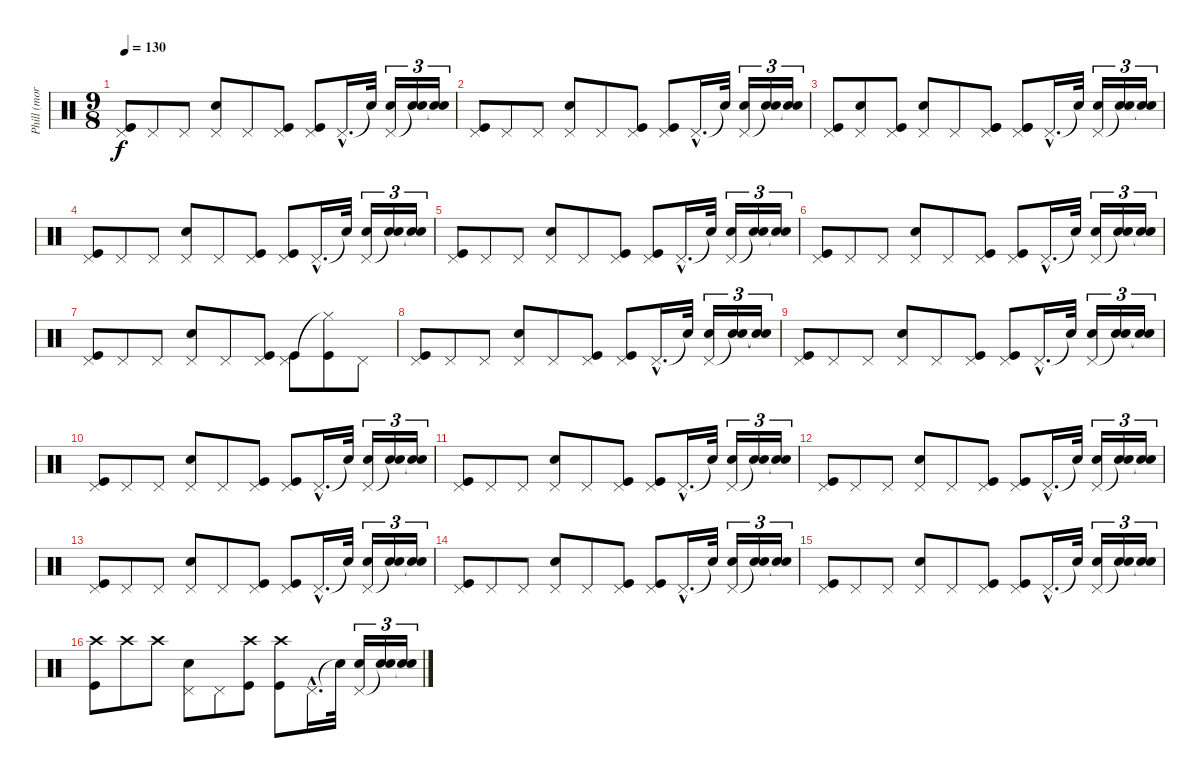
\track ("Phill (mornig bell)" "Phill (mor") {instrument percussion}
\staff {score}
\articulation defaults
\ts (9 8)
\tempo 130
\clef neutral
\ks c
("Pedal Hi-Hat (hit)" "Kick (hit)").8{dy f} "Pedal Hi-Hat (hit)".8 "Pedal Hi-Hat (hit)".8 ("Pedal Hi-Hat (hit)" "Snare (hit) 2").8 "Pedal Hi-Hat (hit)".8 ("Pedal Hi-Hat (hit)" "Kick (hit)").8 ("Pedal Hi-Hat (hit)" "Kick (hit)").8 "Pedal Hi-Hat (hit)"{hac}.16{d} "Snare (hit)"{t}.32 ("Pedal Hi-Hat (hit)" "Snare (hit) 2").16{tu (3 2)} ("Snare (hit)"{t} "Snare (hit) 2").16{tu (3 2)} ("Snare (hit)"{t} "Snare (hit) 2").16{tu (3 2)} |
("Pedal Hi-Hat (hit)" "Kick (hit)").8 "Pedal Hi-Hat (hit)".8 "Pedal Hi-Hat (hit)".8 ("Pedal Hi-Hat (hit)" "Snare (hit) 2").8 "Pedal Hi-Hat (hit)".8 ("Pedal Hi-Hat (hit)" "Kick (hit)").8 ("Pedal Hi-Hat (hit)" "Kick (hit)").8 "Pedal Hi-Hat (hit)"{hac}.16{d} "Snare (hit)"{t}.32 ("Pedal Hi-Hat (hit)" "Snare (hit) 2").16{tu (3 2)} ("Snare (hit)"{t} "Snare (hit) 2").16{tu (3 2)} ("Snare (hit)"{t} "Snare (hit) 2").16{tu (3 2)} |
("Pedal Hi-Hat (hit)" "Kick (hit)").8 ("Pedal Hi-Hat (hit)" "Snare (hit) 2").8 ("Pedal Hi-Hat (hit)" "Kick (hit)").8 ("Pedal Hi-Hat (hit)" "Snare (hit) 2").8 "Pedal Hi-Hat (hit)".8 ("Pedal Hi-Hat (hit)" "Kick (hit)" "Kick (hit)").8 ("Pedal Hi-Hat (hit)" "Kick (hit)" "Kick (hit)").8 "Pedal Hi-Hat (hit)"{hac}.16{d} "Snare (hit)"{t}.32 ("Pedal Hi-Hat (hit)" "Snare (hit) 2").16{tu (3 2)} ("Snare (hit)"{t} "Snare (hit) 2").16{tu (3 2)} ("Snare (hit)"{t} "Snare (hit) 2").16{tu (3 2)} |
("Pedal Hi-Hat (hit)" "Kick (hit)").8 "Pedal Hi-Hat (hit)".8 "Pedal Hi-Hat (hit)".8 ("Pedal Hi-Hat (hit)" "Snare (hit) 2").8 "Pedal Hi-Hat (hit)".8 ("Pedal Hi-Hat (hit)" "Kick (hit)").8 ("Pedal Hi-Hat (hit)" "Kick (hit)").8 "Pedal Hi-Hat (hit)"{hac}.16{d} "Snare (hit)"{t}.32 ("Pedal Hi-Hat (hit)" "Snare (hit) 2").16{tu (3 2)} ("Snare (hit)"{t} "Snare (hit) 2").16{tu (3 2)} ("Snare (hit)"{t} "Snare (hit) 2").16{tu (3 2)} |
("Pedal Hi-Hat (hit)" "Kick (hit)").8 "Pedal Hi-Hat (hit)".8 "Pedal Hi-Hat (hit)".8 ("Pedal Hi-Hat (hit)" "Snare (hit) 2").8 "Pedal Hi-Hat (hit)".8 ("Pedal Hi-Hat (hit)" "Kick (hit)").8 ("Pedal Hi-Hat (hit)" "Kick (hit)").8 "Pedal Hi-Hat (hit)"{hac}.16{d} "Snare (hit)"{t}.32 ("Pedal Hi-Hat (hit)" "Snare (hit) 2").16{tu (3 2)} ("Snare (hit)"{t} "Snare (hit) 2").16{tu (3 2)} ("Snare (hit)"{t} "Snare (hit) 2").16{tu (3 2)} |
("Pedal Hi-Hat (hit)" "Kick (hit)").8 "Pedal Hi-Hat (hit)".8 "Pedal Hi-Hat (hit)".8 ("Pedal Hi-Hat (hit)" "Snare (hit) 2").8 "Pedal Hi-Hat (hit)".8 ("Pedal Hi-Hat (hit)" "Kick (hit)").8 ("Pedal Hi-Hat (hit)" "Kick (hit)").8 "Pedal Hi-Hat (hit)"{hac}.16{d} "Snare (hit)"{t}.32 ("Pedal Hi-Hat (hit)" "Snare (hit) 2").16{tu (3 2)} ("Snare (hit)"{t} "Snare (hit) 2").16{tu (3 2)} ("Snare (hit)"{t} "Snare (hit) 2").16{tu (3 2)} |
("Pedal Hi-Hat (hit)" "Kick (hit)").8 "Pedal Hi-Hat (hit)".8 "Pedal Hi-Hat (hit)".8 ("Pedal Hi-Hat (hit)" "Snare (hit) 2").8 "Pedal Hi-Hat (hit)".8 ("Pedal Hi-Hat (hit)" "Kick (hit)").8 ("Pedal Hi-Hat (hit)" "Kick (hit)").8 ("Hi-Hat (closed)"{t} "Kick (hit)").8 "Pedal Hi-Hat (hit)".8 |
("Pedal Hi-Hat (hit)" "Kick (hit)").8 "Pedal Hi-Hat (hit)".8 "Pedal Hi-Hat (hit)".8 ("Pedal Hi-Hat (hit)" "Snare (hit) 2").8 "Pedal Hi-Hat (hit)".8 ("Pedal Hi-Hat (hit)" "Kick (hit)").8 ("Pedal Hi-Hat (hit)" "Kick (hit)").8 "Pedal Hi-Hat (hit)"{hac}.16{d} "Snare (hit)"{t}.32 ("Pedal Hi-Hat (hit)" "Snare (hit) 2").16{tu (3 2)} ("Snare (hit)"{t} "Snare (hit) 2").16{tu (3 2)} ("Snare (hit)"{t} "Snare (hit) 2").16{tu (3 2)} |
("Pedal Hi-Hat (hit)" "Kick (hit)").8 "Pedal Hi-Hat (hit)".8 "Pedal Hi-Hat (hit)".8 ("Pedal Hi-Hat (hit)" "Snare (hit) 2").8 "Pedal Hi-Hat (hit)".8 ("Pedal Hi-Hat (hit)" "Kick (hit)").8 ("Pedal Hi-Hat (hit)" "Kick (hit)").8 "Pedal Hi-Hat (hit)"{hac}.16{d} "Snare (hit)"{t}.32 ("Pedal Hi-Hat (hit)" "Snare (hit) 2").16{tu (3 2)} ("Snare (hit)"{t} "Snare (hit) 2").16{tu (3 2)} ("Snare (hit)"{t} "Snare (hit) 2").16{tu (3 2)} |
("Pedal Hi-Hat (hit)" "Kick (hit)").8 "Pedal Hi-Hat (hit)".8 "Pedal Hi-Hat (hit)".8 ("Pedal Hi-Hat (hit)" "Snare (hit) 2").8 "Pedal Hi-Hat (hit)".8 ("Pedal Hi-Hat (hit)" "Kick (hit)").8 ("Pedal Hi-Hat (hit)" "Kick (hit)").8 "Pedal Hi-Hat (hit)"{hac}.16{d} "Snare (hit)"{t}.32 ("Pedal Hi-Hat (hit)" "Snare (hit) 2").16{tu (3 2)} ("Snare (hit)"{t} "Snare (hit) 2").16{tu (3 2)} ("Snare (hit)"{t} "Snare (hit) 2").16{tu (3 2)} |
("Pedal Hi-Hat (hit)" "Kick (hit)").8 "Pedal Hi-Hat (hit)".8 "Pedal Hi-Hat (hit)".8 ("Pedal Hi-Hat (hit)" "Snare (hit) 2").8 "Pedal Hi-Hat (hit)".8 ("Pedal Hi-Hat (hit)" "Kick (hit)").8 ("Pedal Hi-Hat (hit)" "Kick (hit)").8 "Pedal Hi-Hat (hit)"{hac}.16{d} "Snare (hit)"{t}.32 ("Pedal Hi-Hat (hit)" "Snare (hit) 2").16{tu (3 2)} ("Snare (hit)"{t} "Snare (hit) 2").16{tu (3 2)} ("Snare (hit)"{t} "Snare (hit) 2").16{tu (3 2)} |
("Pedal Hi-Hat (hit)" "Kick (hit)").8 "Pedal Hi-Hat (hit)".8 "Pedal Hi-Hat (hit)".8 ("Pedal Hi-Hat (hit)" "Snare (hit) 2").8 "Pedal Hi-Hat (hit)".8 ("Pedal Hi-Hat (hit)" "Kick (hit)").8 ("Pedal Hi-Hat (hit)" "Kick (hit)").8 "Pedal Hi-Hat (hit)"{hac}.16{d} "Snare (hit)"{t}.32 ("Pedal Hi-Hat (hit)" "Snare (hit) 2").16{tu (3 2)} ("Snare (hit)"{t} "Snare (hit) 2").16{tu (3 2)} ("Snare (hit)"{t} "Snare (hit) 2").16{tu (3 2)} |
("Pedal Hi-Hat (hit)" "Kick (hit)").8 "Pedal Hi-Hat (hit)".8 "Pedal Hi-Hat (hit)".8 ("Pedal Hi-Hat (hit)" "Snare (hit) 2").8 "Pedal Hi-Hat (hit)".8 ("Pedal Hi-Hat (hit)" "Kick (hit)").8 ("Pedal Hi-Hat (hit)" "Kick (hit)").8 "Pedal Hi-Hat (hit)"{hac}.16{d} "Snare (hit)"{t}.32 ("Pedal Hi-Hat (hit)" "Snare (hit) 2").16{tu (3 2)} ("Snare (hit)"{t} "Snare (hit) 2").16{tu (3 2)} ("Snare (hit)"{t} "Snare (hit) 2").16{tu (3 2)} |
("Pedal Hi-Hat (hit)" "Kick (hit)").8 "Pedal Hi-Hat (hit)".8 "Pedal Hi-Hat (hit)".8 ("Pedal Hi-Hat (hit)" "Snare (hit) 2").8 "Pedal Hi-Hat (hit)".8 ("Pedal Hi-Hat (hit)" "Kick (hit)").8 ("Pedal Hi-Hat (hit)" "Kick (hit)").8 "Pedal Hi-Hat (hit)"{hac}.16{d} "Snare (hit)"{t}.32 ("Pedal Hi-Hat (hit)" "Snare (hit) 2").16{tu (3 2)} ("Snare (hit)"{t} "Snare (hit) 2").16{tu (3 2)} ("Snare (hit)"{t} "Snare (hit) 2").16{tu (3 2)} |
("Pedal Hi-Hat (hit)" "Kick (hit)").8 "Pedal Hi-Hat (hit)".8 "Pedal Hi-Hat (hit)".8 ("Pedal Hi-Hat (hit)" "Snare (hit) 2").8 "Pedal Hi-Hat (hit)".8 ("Pedal Hi-Hat (hit)" "Kick (hit)").8 ("Pedal Hi-Hat (hit)" "Kick (hit)").8 "Pedal Hi-Hat (hit)"{hac}.16{d} "Snare (hit)"{t}.32 ("Pedal Hi-Hat (hit)" "Snare (hit) 2").16{tu (3 2)} ("Snare (hit)"{t} "Snare (hit) 2").16{tu (3 2)} ("Snare (hit)"{t} "Snare (hit) 2").16{tu (3 2)} |
("Crash high (hit)" "Kick (hit)").8 "Crash high (hit)".8 "Crash high (hit)".8 ("Pedal Hi-Hat (hit)" "Snare (hit) 2").8 "Pedal Hi-Hat (hit)".8 ("Crash high (hit)" "Kick (hit)").8 ("Crash high (hit)" "Kick (hit)").8 "Pedal Hi-Hat (hit)"{hac}.16{d} "Snare (hit)"{t}.32 ("Pedal Hi-Hat (hit)" "Snare (hit) 2").16{tu (3 2)} ("Snare (hit)"{t} "Snare (hit) 2").16{tu (3 2)} ("Snare (hit)"{t} "Snare (hit) 2").16{tu (3 2)}
